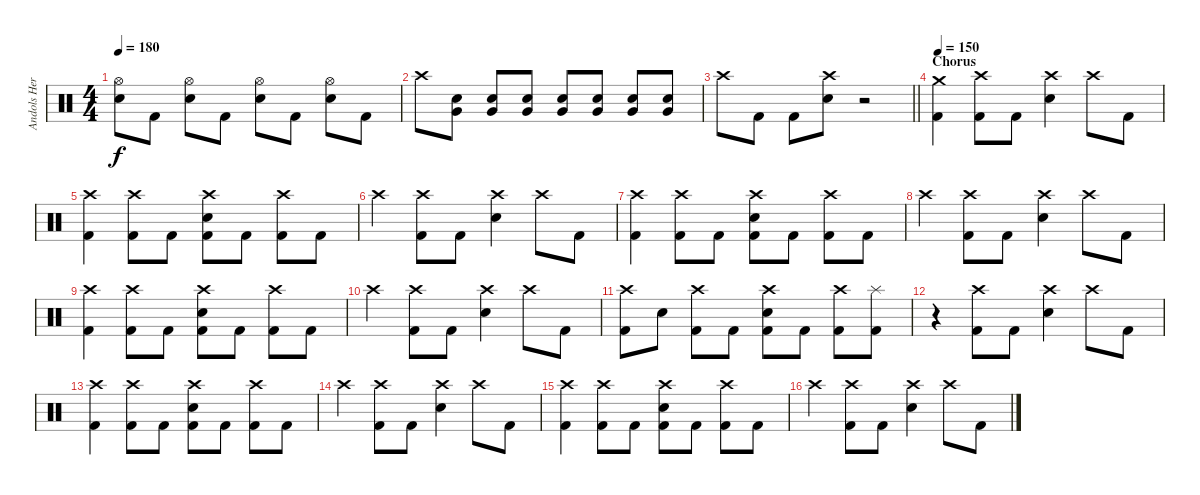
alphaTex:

\track ("Andols Herrick" "Andols Her") {instrument percussion}
\staff {score}
\articulation defaults
\ts (4 4)
\tempo 180
\clef neutral
\ks c
("Hi-Hat (open)" "Electric Snare (hit)").8{dy f} "Kick (hit) 2".8 ("Hi-Hat (open)" "Electric Snare (hit)").8 "Kick (hit) 2".8 ("Hi-Hat (open)" "Electric Snare (hit)").8 "Kick (hit) 2".8 ("Hi-Hat (open)" "Electric Snare (hit)").8 "Kick (hit) 2".8 |
"Crash high (hit)".8 ("Electric Snare (hit)" "Very Low Tom (hit)").8 ("Electric Snare (hit)" "Very Low Tom (hit)").8 ("Electric Snare (hit)" "Very Low Tom (hit)").8 ("Electric Snare (hit)" "Very Low Tom (hit)").8 ("Electric Snare (hit)" "Very Low Tom (hit)").8 ("Electric Snare (hit)" "Very Low Tom (hit)").8 ("Electric Snare (hit)" "Very Low Tom (hit)").8 |
\barLineRight lightlight "Crash high (hit)".8 "Kick (hit) 2".8 "Kick (hit) 2".8
("Crash high (hit)" "Electric Snare (hit)").8 r.2 |
\section ("" "Chorus")
\tempo 150
("Crash medium (hit)" "Kick (hit) 2").4 ("Crash high (hit)" "Kick (hit) 2").8 "Kick (hit) 2".8 ("Crash high (hit)" "Electric Snare (hit)").4 "Crash high (hit)".8 "Kick (hit) 2".8 |
("Crash high (hit)" "Kick (hit) 2").4 ("Crash high (hit)" "Kick (hit) 2").8 "Kick (hit) 2".8 ("Crash high (hit)" "Electric Snare (hit)" "Kick (hit) 2").8 "Kick (hit) 2".8 ("Crash high (hit)" "Kick (hit) 2").8 "Kick (hit) 2".8 |
"Crash high (hit)".4 ("Crash high (hit)" "Kick (hit) 2").8 "Kick (hit) 2".8 ("Crash high (hit)" "Electric Snare (hit)").4 "Crash high (hit)".8 "Kick (hit) 2".8 |
("Crash high (hit)" "Kick (hit) 2").4 ("Crash high (hit)" "Kick (hit) 2").8 "Kick (hit) 2".8 ("Crash high (hit)" "Electric Snare (hit)" "Kick (hit) 2").8 "Kick (hit) 2".8 ("Crash high (hit)" "Kick (hit) 2").8 "Kick (hit) 2".8 |
"Crash high (hit)".4 ("Crash high (hit)" "Kick (hit) 2").8 "Kick (hit) 2".8 ("Crash high (hit)" "Electric Snare (hit)").4 "Crash high (hit)".8 "Kick (hit) 2".8 |
("Crash high (hit)" "Kick (hit) 2").4 ("Crash high (hit)" "Kick (hit) 2").8 "Kick (hit) 2".8 ("Crash high (hit)" "Electric Snare (hit)" "Kick (hit) 2").8 "Kick (hit) 2".8 ("Crash high (hit)" "Kick (hit) 2").8 "Kick (hit) 2".8 |
"Crash high (hit)".4 ("Crash high (hit)" "Kick (hit) 2").8 "Kick (hit) 2".8 ("Crash high (hit)" "Electric Snare (hit)").4 "Crash high (hit)".8 "Kick (hit) 2".8 |
("Crash high (hit)" "Kick (hit) 2").8 "Electric Snare (hit)".8 ("Crash high (hit)" "Kick (hit) 2").8 "Kick (hit) 2".8 ("Crash high (hit)" "Electric Snare (hit)" "Kick (hit) 2").8 "Kick (hit) 2".8 ("Crash high (hit)" "Kick (hit) 2").8 ("Splash (hit)" "Kick (hit) 2").8 |
r.4 ("Crash high (hit)" "Kick (hit) 2").8 "Kick (hit) 2".8 ("Crash high (hit)" "Electric Snare (hit)").4 "Crash high (hit)".8 "Kick (hit) 2".8 |
("Crash high (hit)" "Kick (hit) 2").4 ("Crash high (hit)" "Kick (hit) 2").8 "Kick (hit) 2".8 ("Crash high (hit)" "Electric Snare (hit)" "Kick (hit) 2").8 "Kick (hit) 2".8 ("Crash high (hit)" "Kick (hit) 2").8 "Kick (hit) 2".8 |
"Crash high (hit)".4 ("Crash high (hit)" "Kick (hit) 2").8 "Kick (hit) 2".8 ("Crash high (hit)" "Electric Snare (hit)").4 "Crash high (hit)".8 "Kick (hit) 2".8 |
("Crash high (hit)" "Kick (hit) 2").4 ("Crash high (hit)" "Kick (hit) 2").8 "Kick (hit) 2".8 ("Crash high (hit)" "Electric Snare (hit)" "Kick (hit) 2").8 "Kick (hit) 2".8 ("Crash high (hit)" "Kick (hit) 2").8 "Kick (hit) 2".8 |
"Crash high (hit)".4 ("Crash high (hit)" "Kick (hit) 2").8 "Kick (hit) 2".8 ("Crash high (hit)" "Electric Snare (hit)").4 "Crash high (hit)".8 "Kick (hit) 2".8
